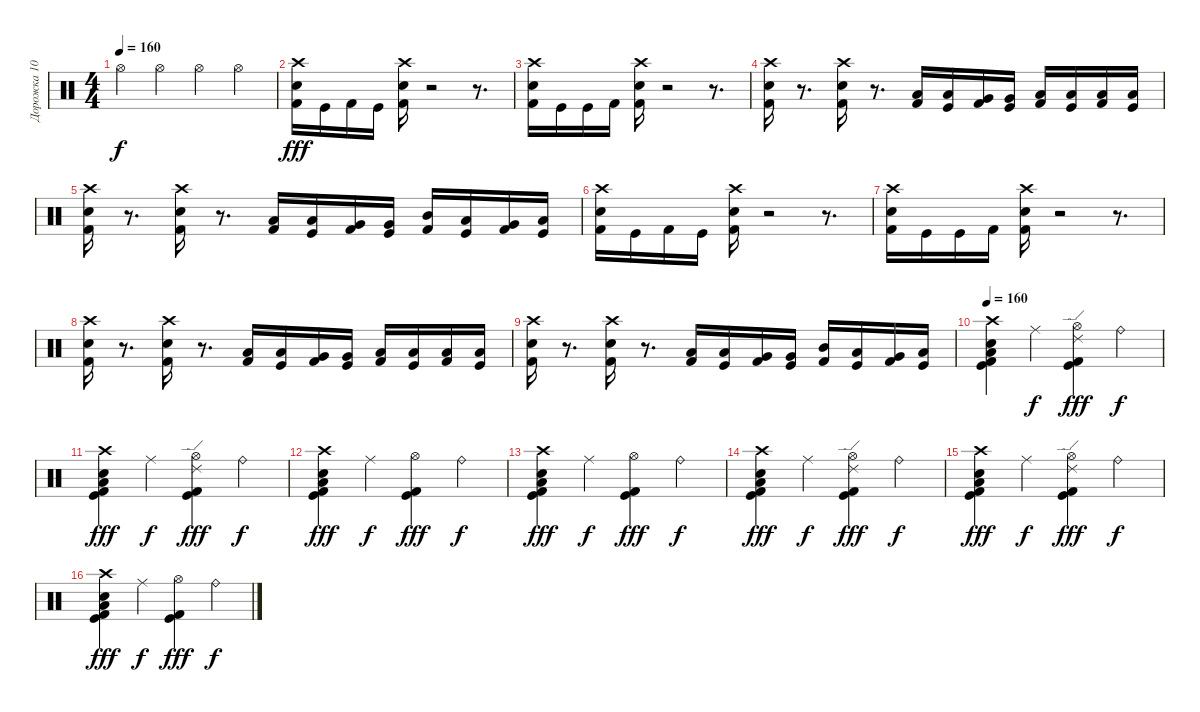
\track ("Дорожка 10" "Дорожка 10") {instrument percussion}
\staff {score}
\articulation defaults
\ts (4 4)
\tempo 160
\clef neutral
\ks c "Hi-Hat (open)".4{dy f} "Hi-Hat (open)".4 "Hi-Hat (open)".4 "Hi-Hat (open)".4
|
("Crash high (hit)" "Snare (hit) 2" "Kick (hit) 2").16{dy fff} "Kick (hit)".16 "Kick (hit) 2".16 "Kick (hit)".16 ("Crash high (hit)" "Snare (hit) 2" "Kick (hit) 2").16 r.2 r.8{d} |
("Crash high (hit)" "Snare (hit) 2" "Kick (hit) 2").16 "Kick (hit)".16 "Kick (hit)".16 "Kick (hit) 2".16 ("Crash high (hit)" "Snare (hit) 2" "Kick (hit) 2").16 r.2 r.8{d} |
("Crash high (hit)" "Snare (hit) 2" "Kick (hit) 2").16 r.8{d} ("Crash high (hit)" "Snare (hit) 2" "Kick (hit) 2").16 r.8{d} ("Low Tom (hit)" "Kick (hit) 2").16 ("Low Tom (hit)" "Kick (hit)").16 ("Very Low Tom (hit)" "Kick (hit) 2").16 ("Very Low Tom (hit)" "Kick (hit)").16 ("Low Floor Tom (hit)" "Kick (hit) 2").16 ("Low Floor Tom (hit)" "Kick (hit)").16 ("Low Floor Tom (hit)" "Kick (hit) 2").16 ("Low Floor Tom (hit)" "Kick (hit)").16 |
("Snare (hit) 2" "Crash high (hit)" "Kick (hit) 2").16 r.8{d} ("Crash high (hit)" "Snare (hit) 2" "Kick (hit) 2").16 r.8{d} ("Low Tom (hit)" "Kick (hit) 2").16 ("Low Tom (hit)" "Kick (hit)").16 ("Very Low Tom (hit)" "Kick (hit) 2").16 ("Very Low Tom (hit)" "Kick (hit)").16 ("Mid Tom (hit)" "Kick (hit) 2").16 ("Low Tom (hit)" "Kick (hit)").16 ("Very Low Tom (hit)" "Kick (hit) 2").16 ("Low Floor Tom (hit)" "Kick (hit)").16 |
("Crash high (hit)" "Snare (hit) 2" "Kick (hit) 2").16 "Kick (hit)".16 "Kick (hit) 2".16 "Kick (hit)".16 ("Crash high (hit)" "Snare (hit) 2" "Kick (hit) 2").16 r.2 r.8{d} |
("Crash high (hit)" "Snare (hit) 2" "Kick (hit) 2").16 "Kick (hit)".16 "Kick (hit)".16 "Kick (hit) 2".16 ("Crash high (hit)" "Snare (hit) 2" "Kick (hit) 2").16 r.2 r.8{d} |
("Crash high (hit)" "Snare (hit) 2" "Kick (hit) 2").16 r.8{d} ("Crash high (hit)" "Snare (hit) 2" "Kick (hit) 2").16 r.8{d} ("Low Tom (hit)" "Kick (hit) 2").16 ("Low Tom (hit)" "Kick (hit)").16 ("Very Low Tom (hit)" "Kick (hit) 2").16 ("Very Low Tom (hit)" "Kick (hit)").16 ("Low Floor Tom (hit)" "Kick (hit) 2").16 ("Low Floor Tom (hit)" "Kick (hit)").16 ("Low Floor Tom (hit)" "Kick (hit) 2").16 ("Low Floor Tom (hit)" "Kick (hit)").16 |
("Snare (hit) 2" "Crash high (hit)" "Kick (hit) 2").16 r.8{d} ("Crash high (hit)" "Snare (hit) 2" "Kick (hit) 2").16 r.8{d} ("Low Tom (hit)" "Kick (hit) 2").16 ("Low Tom (hit)" "Kick (hit)").16 ("Very Low Tom (hit)" "Kick (hit) 2").16 ("Very Low Tom (hit)" "Kick (hit)").16 ("Mid Tom (hit)" "Kick (hit) 2").16 ("Low Tom (hit)" "Kick (hit)").16 ("Very Low Tom (hit)" "Kick (hit) 2").16 ("Low Floor Tom (hit)" "Kick (hit)").16 |
\tempo 160
("Low Floor Tom (hit)" "Snare (hit) 2" "Crash high (hit)" "Kick (hit)" "Kick (hit) 2").4 "Ride (middle)".4{dy f} ("Hi-Hat (open)" "Ride (edge) 2" "Kick (hit)" "Kick (hit) 2").4{dy fff} "Ride (bell)".4{dy f} |
("Low Floor Tom (hit)" "Snare (hit) 2" "Crash high (hit)" "Kick (hit)" "Kick (hit) 2").4{dy fff} "Ride (middle)".4{dy f} ("Hi-Hat (open)" "Ride (edge) 2" "Kick (hit) 2" "Kick (hit)").4{dy fff} "Ride (bell)".4{dy f} |
("Low Floor Tom (hit)" "Snare (hit) 2" "Crash high (hit)" "Kick (hit)" "Kick (hit) 2").4{dy fff} "Ride (middle)".4{dy f} ("Hi-Hat (open)" "Kick (hit)" "Kick (hit) 2").4{dy fff} "Ride (bell)".4{dy f} |
("Low Floor Tom (hit)" "Snare (hit) 2" "Crash high (hit)" "Kick (hit)" "Kick (hit) 2").4{dy fff} "Ride (middle)".4{dy f} ("Hi-Hat (open)" "Kick (hit) 2" "Kick (hit)").4{dy fff} "Ride (bell)".4{dy f} |
("Low Floor Tom (hit)" "Snare (hit) 2" "Crash high (hit)" "Kick (hit)" "Kick (hit) 2").4{dy fff} "Ride (middle)".4{dy f} ("Hi-Hat (open)" "Ride (edge) 2" "Kick (hit)" "Kick (hit) 2").4{dy fff} "Ride (bell)".4{dy f} |
("Low Floor Tom (hit)" "Snare (hit) 2" "Crash high (hit)" "Kick (hit)" "Kick (hit) 2").4{dy fff} "Ride (middle)".4{dy f} ("Hi-Hat (open)" "Ride (edge) 2" "Kick (hit) 2" "Kick (hit)").4{dy fff} "Ride (bell)".4{dy f} |
("Low Floor Tom (hit)" "Snare (hit) 2" "Crash high (hit)" "Kick (hit)" "Kick (hit) 2").4{dy fff} "Ride (middle)".4{dy f} ("Hi-Hat (open)" "Kick (hit)" "Kick (hit) 2").4{dy fff} "Ride (bell)".4{dy f}
